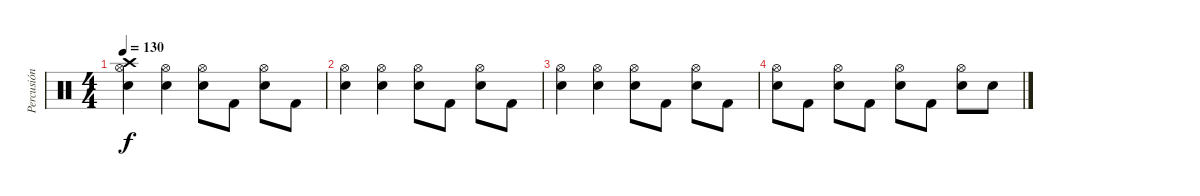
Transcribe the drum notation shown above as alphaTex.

\track ("Percusión" "Percusión") {instrument percussion}
\staff {score}
\articulation defaults
\ts (4 4)
\tempo 130
\clef neutral
\ks c
("Crash high (hit)" "Hi-Hat (open)" "Snare (hit) 2").4{dy f volume 0} ("Hi-Hat (open)" "Snare (hit) 2").4 ("Hi-Hat (open)" "Snare (hit) 2").8 "Kick (hit) 2".8 ("Hi-Hat (open)" "Snare (hit) 2").8 "Kick (hit) 2".8 |
("Hi-Hat (open)" "Snare (hit) 2").4 ("Hi-Hat (open)" "Snare (hit) 2").4 ("Hi-Hat (open)" "Snare (hit) 2").8 "Kick (hit) 2".8 ("Hi-Hat (open)" "Snare (hit) 2").8 "Kick (hit) 2".8 |
("Hi-Hat (open)" "Snare (hit) 2").4 ("Hi-Hat (open)" "Snare (hit) 2").4 ("Hi-Hat (open)" "Snare (hit) 2").8 "Kick (hit) 2".8 ("Hi-Hat (open)" "Snare (hit) 2").8 "Kick (hit) 2".8 |
("Hi-Hat (open)" "Snare (hit) 2").8 "Kick (hit) 2".8 ("Hi-Hat (open)" "Snare (hit) 2").8 "Kick (hit) 2".8 ("Hi-Hat (open)" "Snare (hit) 2").8 "Kick (hit) 2".8 ("Hi-Hat (open)" "Snare (hit) 2").8 "Snare (hit) 2".8
